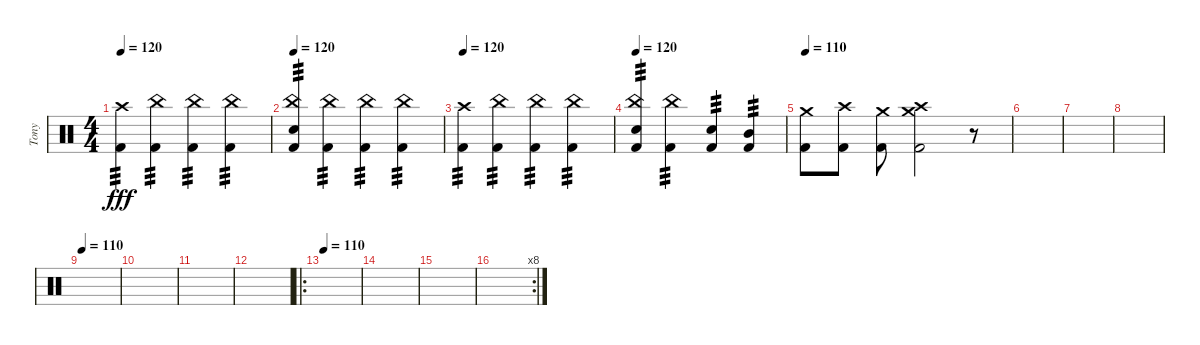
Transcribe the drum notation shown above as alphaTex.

\track ("Tony" "Tony") {instrument percussion}
\staff {score}
\articulation defaults
\ts (4 4)
\tempo 120
\clef neutral
\ks c
("Crash high (hit)" "Kick (hit) 2").4{tp 3 dy fff} ("China (hit)" "Kick (hit) 2").4{tp 3} ("China (hit)" "Kick (hit) 2").4{tp 3} ("China (hit)" "Kick (hit) 2").4{tp 3} |
\tempo 120
("China (hit)" "Snare (hit) 2" "Kick (hit) 2").4{tp 3} ("China (hit)" "Kick (hit) 2").4{tp 3} ("China (hit)" "Kick (hit) 2").4{tp 3} ("China (hit)" "Kick (hit) 2").4{tp 3} |
\tempo 120
("Crash high (hit)" "Kick (hit) 2").4{tp 3} ("China (hit)" "Kick (hit) 2").4{tp 3} ("China (hit)" "Kick (hit) 2").4{tp 3} ("China (hit)" "Kick (hit) 2").4{tp 3} |
\tempo 120
("China (hit)" "Snare (hit) 2" "Kick (hit) 2").4{tp 3} ("China (hit)" "Kick (hit) 2").4{tp 3} ("Snare (hit) 2" "Kick (hit) 2").4{tp 3} ("Mid Tom (hit)" "Kick (hit) 2").4{tp 3} |
\tempo 110
("Crash medium (hit)" "Kick (hit) 2").8 ("Crash high (hit)" "Kick (hit) 2").8 ("Crash medium (hit)" "Kick (hit) 2").8 ("Crash high (hit)" "Crash medium (hit)" "Kick (hit) 2").2 r.8 |
|
|
|
\tempo 110
|
|
|
|
\ro
\tempo 110
|
|
|
\rc 8
